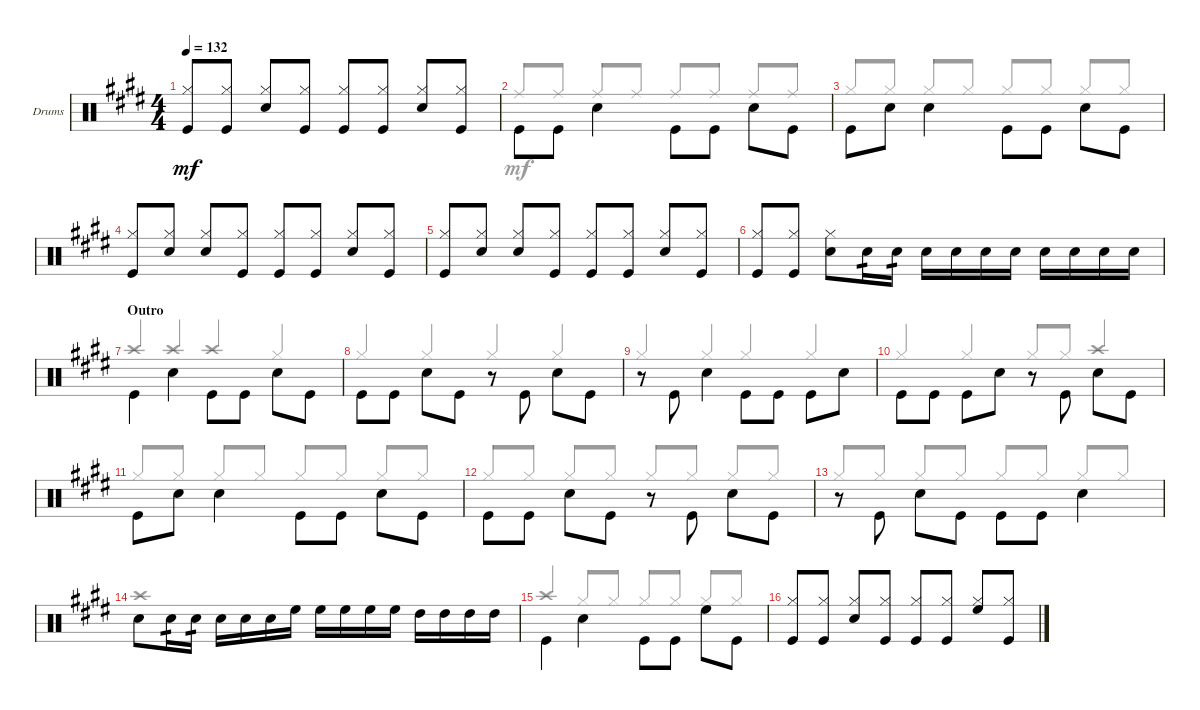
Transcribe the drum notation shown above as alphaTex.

\defaultSystemsLayout 4
\bracketExtendMode groupsimilarinstruments
\firstSystemTrackNameOrientation horizontal
\otherSystemsTrackNameOrientation horizontal
\track ("PETER CRISS" "Drums") {solo instrument percussion}
\staff {score}
\articulation defaults
\voice
\ts (4 4)
\tempo 132
\clef neutral
\ks e
("Kick (hit)" "Hi-Hat (closed)").8{dy mf beam invert} ("Kick (hit)" "Hi-Hat (closed)").8 ("Snare (hit) 2" "Hi-Hat (closed)").8{beam invert} ("Kick (hit)" "Hi-Hat (closed)").8 ("Kick (hit)" "Hi-Hat (closed)").8{beam invert} ("Kick (hit)" "Hi-Hat (closed)").8 ("Snare (hit) 2" "Hi-Hat (closed)").8{beam invert} ("Kick (hit)" "Hi-Hat (closed)").8 |
"Kick (hit)".8{beam invert} "Kick (hit)".8 "Snare (hit) 2".4{beam invert} "Kick (hit)".8 "Kick (hit)".8{beam invert} "Snare (hit) 2".8 "Kick (hit)".8{beam invert} |
"Kick (hit)".8{beam invert} "Snare (hit) 2".8 "Snare (hit) 2".4{beam invert} "Kick (hit)".8{beam invert} "Kick (hit)".8 "Snare (hit) 2".8{beam invert} "Kick (hit)".8 |
("Kick (hit)" "Hi-Hat (closed)").8 ("Hi-Hat (closed)" "Snare (hit) 2").8 ("Snare (hit) 2" "Hi-Hat (closed)").8{beam invert} ("Kick (hit)" "Hi-Hat (closed)").8 ("Kick (hit)" "Hi-Hat (closed)").8{beam invert} ("Kick (hit)" "Hi-Hat (closed)").8 ("Snare (hit) 2" "Hi-Hat (closed)").8{beam invert} ("Kick (hit)" "Hi-Hat (closed)").8 |
("Kick (hit)" "Hi-Hat (closed)").8 ("Hi-Hat (closed)" "Snare (hit) 2").8 ("Snare (hit) 2" "Hi-Hat (closed)").8{beam invert} ("Kick (hit)" "Hi-Hat (closed)").8 ("Kick (hit)" "Hi-Hat (closed)").8{beam invert} ("Kick (hit)" "Hi-Hat (closed)").8 ("Snare (hit) 2" "Hi-Hat (closed)").8{beam invert} ("Kick (hit)" "Hi-Hat (closed)").8 |
("Kick (hit)" "Hi-Hat (closed)").8{beam invert} ("Kick (hit)" "Hi-Hat (closed)").8 ("Snare (hit) 2" "Hi-Hat (closed)").8 "Snare (hit) 2".16{tp 1} "Snare (hit) 2".16{tp 1} "Snare (hit) 2".16 "Snare (hit) 2".16 "Snare (hit) 2".16 "Snare (hit) 2".16 "Snare (hit) 2".16 "Snare (hit) 2".16 "Snare (hit) 2".16 "Snare (hit) 2".16 |
\section ("" "Outro")
"Kick (hit)".4{beam invert} "Snare (hit) 2".4 "Kick (hit)".8{beam invert} "Kick (hit)".8 "Snare (hit) 2".8{beam invert} "Kick (hit)".8 |
"Kick (hit)".8{beam invert} "Kick (hit)".8 "Snare (hit) 2".8{beam invert} "Kick (hit)".8 r.8 "Kick (hit)".8{beam invert} "Snare (hit) 2".8{beam invert} "Kick (hit)".8 |
r.8 "Kick (hit)".8{beam invert} "Snare (hit) 2".4{beam invert} "Kick (hit)".8{beam invert} "Kick (hit)".8 "Kick (hit)".8{beam invert} "Snare (hit) 2".8 |
"Kick (hit)".8{beam invert} "Kick (hit)".8 "Kick (hit)".8{beam invert} "Snare (hit) 2".8 r.8 "Kick (hit)".8{beam invert} "Snare (hit) 2".8{beam invert} "Kick (hit)".8 |
"Kick (hit)".8{beam invert} "Snare (hit) 2".8 "Snare (hit) 2".4{beam invert} "Kick (hit)".8{beam invert} "Kick (hit)".8 "Snare (hit) 2".8{beam invert} "Kick (hit)".8 |
"Kick (hit)".8{beam invert} "Kick (hit)".8 "Snare (hit) 2".8{beam invert} "Kick (hit)".8 r.8 "Kick (hit)".8{beam invert} "Snare (hit) 2".8{beam invert} "Kick (hit)".8 |
r.8 "Kick (hit)".8{beam invert} "Snare (hit) 2".8{beam invert} "Kick (hit)".8 "Kick (hit)".8 "Kick (hit)".8{beam invert} "Snare (hit) 2".4{beam invert} |
"Snare (hit) 2".8{beam invert} "Snare (hit) 2".16{tp 1} "Snare (hit) 2".16{tp 1} "Snare (hit) 2".16{beam invert} "Snare (hit) 2".16 "Snare (hit) 2".16 "High Floor Tom (hit)".16 "High Floor Tom (hit)".16{beam invert} "High Floor Tom (hit)".16 "High Floor Tom (hit)".16 "High Floor Tom (hit)".16 "High Tom (hit)".16{beam invert} "High Tom (hit)".16 "High Tom (hit)".16 "High Tom (hit)".16 |
"Kick (hit)".4{beam invert} "Snare (hit) 2".4{beam invert} "Kick (hit)".8{beam invert} "Kick (hit)".8 "High Floor Tom (hit)".8{beam invert} "Kick (hit)".8 |
("Kick (hit)" "Hi-Hat (closed)").8{beam invert} ("Kick (hit)" "Hi-Hat (closed)").8 ("Snare (hit) 2" "Hi-Hat (closed)").8{beam invert} ("Kick (hit)" "Hi-Hat (closed)").8 ("Kick (hit)" "Hi-Hat (closed)").8{beam invert} ("Kick (hit)" "Hi-Hat (closed)").8 ("High Floor Tom (hit)" "Hi-Hat (closed)").8{beam invert} ("Kick (hit)" "Hi-Hat (closed)").8
\voice
\clef neutral
\ottava regular
\simile none
\ks e
|
"Ride (middle)".8{beam invert} "Ride (middle)".8 "Ride (middle)".8{beam invert} "Ride (middle)".8 "Ride (middle)".8{beam invert} "Ride (middle)".8 "Ride (middle)".8{beam invert} "Ride (middle)".8 |
"Hi-Hat (closed)".8{beam invert} "Hi-Hat (closed)".8 "Hi-Hat (closed)".8{beam invert} "Hi-Hat (closed)".8 "Hi-Hat (closed)".8{beam invert} "Hi-Hat (closed)".8 "Hi-Hat (closed)".8{beam invert} "Hi-Hat (closed)".8 |
|
|
|
"Crash high (hit)".4{beam invert} "Crash high (hit)".4{beam invert} "Crash high (hit)".4{beam invert} "Hi-Hat (closed)".4{beam invert} |
"Hi-Hat (closed)".4{beam invert} "Hi-Hat (closed)".4{beam invert} "Hi-Hat (closed)".4{beam invert} "Hi-Hat (closed)".4{beam invert} |
"Hi-Hat (closed)".4{beam invert} "Hi-Hat (closed)".4{beam invert} "Hi-Hat (closed)".4{beam invert} "Hi-Hat (closed)".4{beam invert} |
"Hi-Hat (closed)".4{beam invert} "Hi-Hat (closed)".4{beam invert} "Hi-Hat (closed)".8{beam invert} "Hi-Hat (closed)".8 "Crash high (hit)".4{beam invert} |
"Hi-Hat (closed)".8{beam invert} "Hi-Hat (closed)".8 "Hi-Hat (closed)".8{beam invert} "Hi-Hat (closed)".8 "Hi-Hat (closed)".8{beam invert} "Hi-Hat (closed)".8 "Hi-Hat (closed)".8{beam invert} "Hi-Hat (closed)".8 |
"Hi-Hat (closed)".8{beam invert} "Hi-Hat (closed)".8 "Hi-Hat (closed)".8{beam invert} "Hi-Hat (closed)".8 "Hi-Hat (closed)".8{beam invert} "Hi-Hat (closed)".8 "Hi-Hat (closed)".8{beam invert} "Hi-Hat (closed)".8 |
"Hi-Hat (closed)".8{beam invert} "Hi-Hat (closed)".8 "Hi-Hat (closed)".8{beam invert} "Hi-Hat (closed)".8 "Hi-Hat (closed)".8{beam invert} "Hi-Hat (closed)".8 "Hi-Hat (closed)".8{beam invert} "Hi-Hat (closed)".8 |
"Crash high (hit)".1 |
"Crash high (hit)".4{beam invert} "Hi-Hat (closed)".8{beam invert} "Hi-Hat (closed)".8 "Hi-Hat (closed)".8{beam invert} "Hi-Hat (closed)".8 "Hi-Hat (closed)".8{beam invert} "Hi-Hat (closed)".8 |
